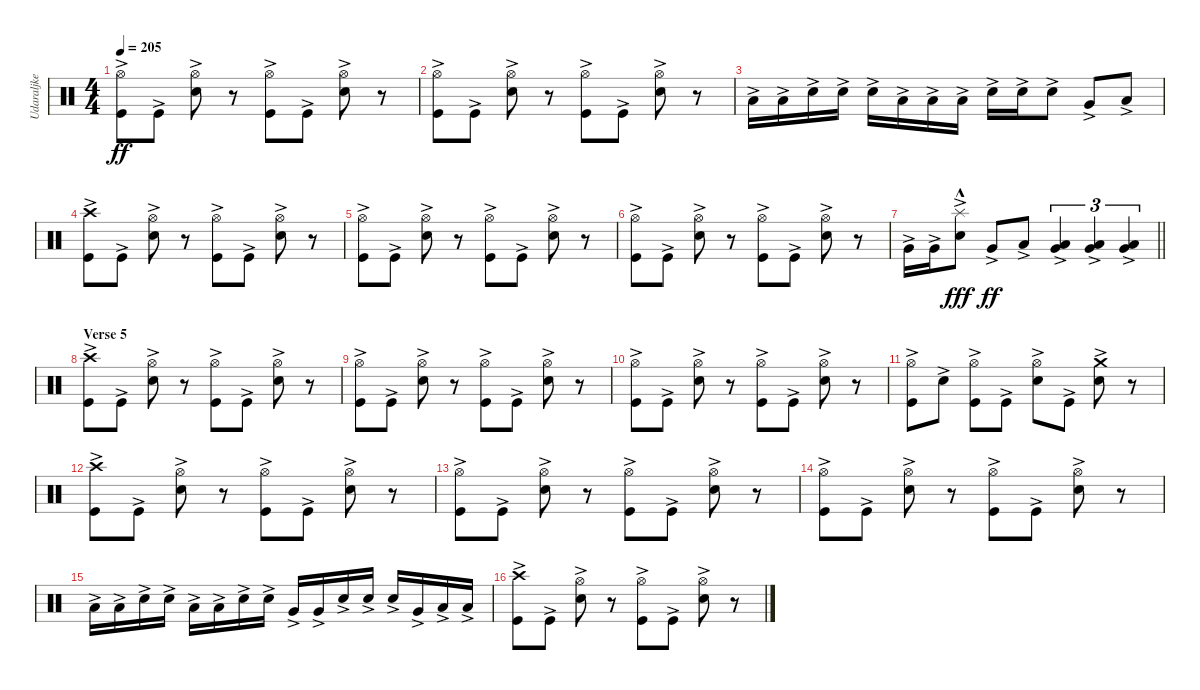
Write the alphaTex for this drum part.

\track ("Udaraljke" "Udaraljke") {instrument percussion}
\staff {score}
\articulation defaults
\ts (4 4)
\tempo 205
\clef neutral
\ks c
("Kick (hit)"{ac} "Hi-Hat (open)").8{dy ff} "Kick (hit)"{ac}.8 ("Hi-Hat (open)" "Snare (hit) 2"{ac}).8 r.8 ("Hi-Hat (open)" "Kick (hit)"{ac}).8 "Kick (hit)"{ac}.8 ("Hi-Hat (open)" "Snare (hit) 2"{ac}).8 r.8 |
("Kick (hit)"{ac} "Hi-Hat (open)").8 "Kick (hit)"{ac}.8 ("Hi-Hat (open)" "Snare (hit) 2"{ac}).8 r.8 ("Hi-Hat (open)" "Kick (hit)"{ac}).8 "Kick (hit)"{ac}.8 ("Hi-Hat (open)" "Snare (hit) 2"{ac}).8 r.8 |
"Low Tom (hit)"{ac}.16 "Low Tom (hit)"{ac}.16 "Snare (hit) 2"{ac}.16 "Snare (hit) 2"{ac}.16 "Snare (hit) 2"{ac}.16 "Low Tom (hit)"{ac}.16 "Low Tom (hit)"{ac}.16 "Low Tom (hit)"{ac}.16 "Snare (hit) 2"{ac}.16 "Snare (hit) 2"{ac}.16 "Snare (hit) 2"{ac}.8 "Very Low Tom (hit)"{ac}.8 "Low Floor Tom (hit)"{ac}.8 |
("Kick (hit)"{ac} "Crash high (hit)").8 "Kick (hit)"{ac}.8 ("Hi-Hat (open)" "Snare (hit) 2"{ac}).8 r.8 ("Hi-Hat (open)" "Kick (hit)"{ac}).8 "Kick (hit)"{ac}.8 ("Hi-Hat (open)" "Snare (hit) 2"{ac}).8 r.8 |
("Kick (hit)"{ac} "Hi-Hat (open)").8 "Kick (hit)"{ac}.8 ("Hi-Hat (open)" "Snare (hit) 2"{ac}).8 r.8 ("Hi-Hat (open)" "Kick (hit)"{ac}).8 "Kick (hit)"{ac}.8 ("Hi-Hat (open)" "Snare (hit) 2"{ac}).8 r.8 |
("Kick (hit)"{ac} "Hi-Hat (open)").8 "Kick (hit)"{ac}.8 ("Hi-Hat (open)" "Snare (hit) 2"{ac}).8 r.8 ("Hi-Hat (open)" "Kick (hit)"{ac}).8 "Kick (hit)"{ac}.8 ("Hi-Hat (open)" "Snare (hit) 2"{ac}).8 r.8 |
\barLineRight lightlight "Very Low Tom (hit)"{ac}.16 "Very Low Tom (hit)"{ac}.16
("Snare (hit) 2"{ac} "Splash (hit)"{hac}).8{dy fff} "Very Low Tom (hit)"{ac}.8{dy ff} "Low Floor Tom (hit)"{ac}.8 ("Low Floor Tom (hit)"{ac} "Very Low Tom (hit)"{ac}).4{tu (3 2)} ("Low Floor Tom (hit)"{ac} "Very Low Tom (hit)"{ac}).4{tu (3 2)} ("Low Floor Tom (hit)"{ac} "Very Low Tom (hit)"{ac}).4{tu (3 2)} |
\section ("" "Verse 5")
("Kick (hit)"{ac} "Crash high (hit)").8 "Kick (hit)"{ac}.8 ("Hi-Hat (open)" "Snare (hit) 2"{ac}).8 r.8 ("Hi-Hat (open)" "Kick (hit)"{ac}).8 "Kick (hit)"{ac}.8 ("Hi-Hat (open)" "Snare (hit) 2"{ac}).8 r.8 |
("Kick (hit)"{ac} "Hi-Hat (open)").8 "Kick (hit)"{ac}.8 ("Hi-Hat (open)" "Snare (hit) 2"{ac}).8 r.8 ("Hi-Hat (open)" "Kick (hit)"{ac}).8 "Kick (hit)"{ac}.8 ("Hi-Hat (open)" "Snare (hit) 2"{ac}).8 r.8 |
("Kick (hit)"{ac} "Hi-Hat (open)").8 "Kick (hit)"{ac}.8 ("Hi-Hat (open)" "Snare (hit) 2"{ac}).8 r.8 ("Hi-Hat (open)" "Kick (hit)"{ac}).8 "Kick (hit)"{ac}.8 ("Hi-Hat (open)" "Snare (hit) 2"{ac}).8 r.8 |
("Kick (hit)"{ac} "Hi-Hat (open)").8 "Snare (hit) 2"{ac}.8 ("Kick (hit)"{ac} "Hi-Hat (open)").8 "Kick (hit)"{ac}.8 ("Snare (hit) 2"{ac} "Hi-Hat (open)").8 "Kick (hit)"{ac}.8 ("Snare (hit) 2"{ac} "Crash medium (hit)").8 r.8 |
("Kick (hit)"{ac} "Crash high (hit)").8 "Kick (hit)"{ac}.8 ("Hi-Hat (open)" "Snare (hit) 2"{ac}).8 r.8 ("Hi-Hat (open)" "Kick (hit)"{ac}).8 "Kick (hit)"{ac}.8 ("Hi-Hat (open)" "Snare (hit) 2"{ac}).8 r.8 |
("Kick (hit)"{ac} "Hi-Hat (open)").8 "Kick (hit)"{ac}.8 ("Hi-Hat (open)" "Snare (hit) 2"{ac}).8 r.8 ("Hi-Hat (open)" "Kick (hit)"{ac}).8 "Kick (hit)"{ac}.8 ("Hi-Hat (open)" "Snare (hit) 2"{ac}).8 r.8 |
("Kick (hit)"{ac} "Hi-Hat (open)").8 "Kick (hit)"{ac}.8 ("Hi-Hat (open)" "Snare (hit) 2"{ac}).8 r.8 ("Hi-Hat (open)" "Kick (hit)"{ac}).8 "Kick (hit)"{ac}.8 ("Hi-Hat (open)" "Snare (hit) 2"{ac}).8 r.8 |
"Low Tom (hit)"{ac}.16 "Low Tom (hit)"{ac}.16 "Snare (hit) 2"{ac}.16 "Snare (hit) 2"{ac}.16 "Low Tom (hit)"{ac}.16 "Low Tom (hit)"{ac}.16 "Snare (hit) 2"{ac}.16 "Snare (hit) 2"{ac}.16 "Very Low Tom (hit)"{ac}.16 "Very Low Tom (hit)"{ac}.16 "Snare (hit) 2"{ac}.16 "Snare (hit) 2"{ac}.16 "Snare (hit) 2"{ac}.16 "Very Low Tom (hit)"{ac}.16 "Low Floor Tom (hit)"{ac}.16 "Low Floor Tom (hit)"{ac}.16 |
("Kick (hit)"{ac} "Crash high (hit)").8 "Kick (hit)"{ac}.8 ("Hi-Hat (open)" "Snare (hit) 2"{ac}).8 r.8 ("Hi-Hat (open)" "Kick (hit)"{ac}).8 "Kick (hit)"{ac}.8 ("Hi-Hat (open)" "Snare (hit) 2"{ac}).8 r.8
